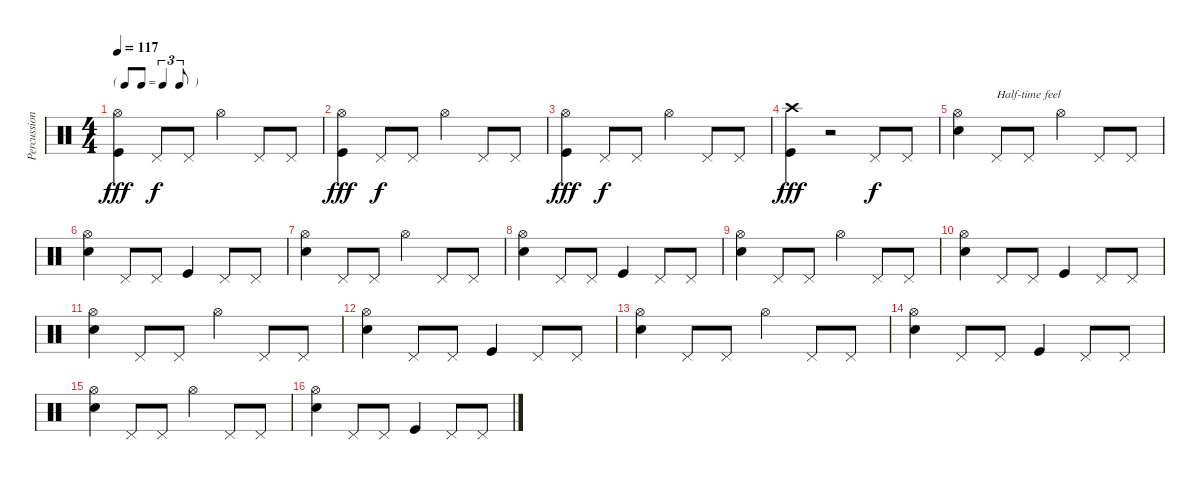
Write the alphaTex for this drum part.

\track ("Percussions" "Percussion") {instrument percussion}
\staff {score}
\articulation defaults
\ts (4 4)
\tf triplet8th
\tempo 117
\clef neutral
\ks c
("Hi-Hat (open)" "Kick (hit)").4{dy fff} "Pedal Hi-Hat (hit)".8{dy f} "Pedal Hi-Hat (hit)".8 "Hi-Hat (open)".4 "Pedal Hi-Hat (hit)".8 "Pedal Hi-Hat (hit)".8 |
("Hi-Hat (open)" "Kick (hit)").4{dy fff} "Pedal Hi-Hat (hit)".8{dy f} "Pedal Hi-Hat (hit)".8 "Hi-Hat (open)".4 "Pedal Hi-Hat (hit)".8 "Pedal Hi-Hat (hit)".8 |
("Hi-Hat (open)" "Kick (hit)").4{dy fff} "Pedal Hi-Hat (hit)".8{dy f} "Pedal Hi-Hat (hit)".8 "Hi-Hat (open)".4 "Pedal Hi-Hat (hit)".8 "Pedal Hi-Hat (hit)".8 |
("Crash high (hit)" "Kick (hit)").4{dy fff} r.2 "Pedal Hi-Hat (hit)".8{dy f} "Pedal Hi-Hat (hit)".8 |
("Hi-Hat (open)" "Snare (hit) 2").4 "Pedal Hi-Hat (hit)".8{txt "Half-time feel"} "Pedal Hi-Hat (hit)".8 "Hi-Hat (open)".4 "Pedal Hi-Hat (hit)".8 "Pedal Hi-Hat (hit)".8 |
("Hi-Hat (open)" "Snare (hit) 2").4 "Pedal Hi-Hat (hit)".8 "Pedal Hi-Hat (hit)".8 "Kick (hit)".4 "Pedal Hi-Hat (hit)".8 "Pedal Hi-Hat (hit)".8 |
("Hi-Hat (open)" "Snare (hit) 2").4 "Pedal Hi-Hat (hit)".8 "Pedal Hi-Hat (hit)".8 "Hi-Hat (open)".4 "Pedal Hi-Hat (hit)".8 "Pedal Hi-Hat (hit)".8 |
("Hi-Hat (open)" "Snare (hit) 2").4 "Pedal Hi-Hat (hit)".8 "Pedal Hi-Hat (hit)".8 "Kick (hit)".4 "Pedal Hi-Hat (hit)".8 "Pedal Hi-Hat (hit)".8 |
("Hi-Hat (open)" "Snare (hit) 2").4 "Pedal Hi-Hat (hit)".8 "Pedal Hi-Hat (hit)".8 "Hi-Hat (open)".4 "Pedal Hi-Hat (hit)".8 "Pedal Hi-Hat (hit)".8 |
("Hi-Hat (open)" "Snare (hit) 2").4 "Pedal Hi-Hat (hit)".8 "Pedal Hi-Hat (hit)".8 "Kick (hit)".4 "Pedal Hi-Hat (hit)".8 "Pedal Hi-Hat (hit)".8 |
("Hi-Hat (open)" "Snare (hit) 2").4 "Pedal Hi-Hat (hit)".8 "Pedal Hi-Hat (hit)".8 "Hi-Hat (open)".4 "Pedal Hi-Hat (hit)".8 "Pedal Hi-Hat (hit)".8 |
("Hi-Hat (open)" "Snare (hit) 2").4 "Pedal Hi-Hat (hit)".8 "Pedal Hi-Hat (hit)".8 "Kick (hit)".4 "Pedal Hi-Hat (hit)".8 "Pedal Hi-Hat (hit)".8 |
("Hi-Hat (open)" "Snare (hit) 2").4 "Pedal Hi-Hat (hit)".8 "Pedal Hi-Hat (hit)".8 "Hi-Hat (open)".4 "Pedal Hi-Hat (hit)".8 "Pedal Hi-Hat (hit)".8 |
("Hi-Hat (open)" "Snare (hit) 2").4 "Pedal Hi-Hat (hit)".8 "Pedal Hi-Hat (hit)".8 "Kick (hit)".4 "Pedal Hi-Hat (hit)".8 "Pedal Hi-Hat (hit)".8 |
("Hi-Hat (open)" "Snare (hit) 2").4 "Pedal Hi-Hat (hit)".8 "Pedal Hi-Hat (hit)".8 "Hi-Hat (open)".4 "Pedal Hi-Hat (hit)".8 "Pedal Hi-Hat (hit)".8 |
("Hi-Hat (open)" "Snare (hit) 2").4 "Pedal Hi-Hat (hit)".8 "Pedal Hi-Hat (hit)".8 "Kick (hit)".4 "Pedal Hi-Hat (hit)".8 "Pedal Hi-Hat (hit)".8
